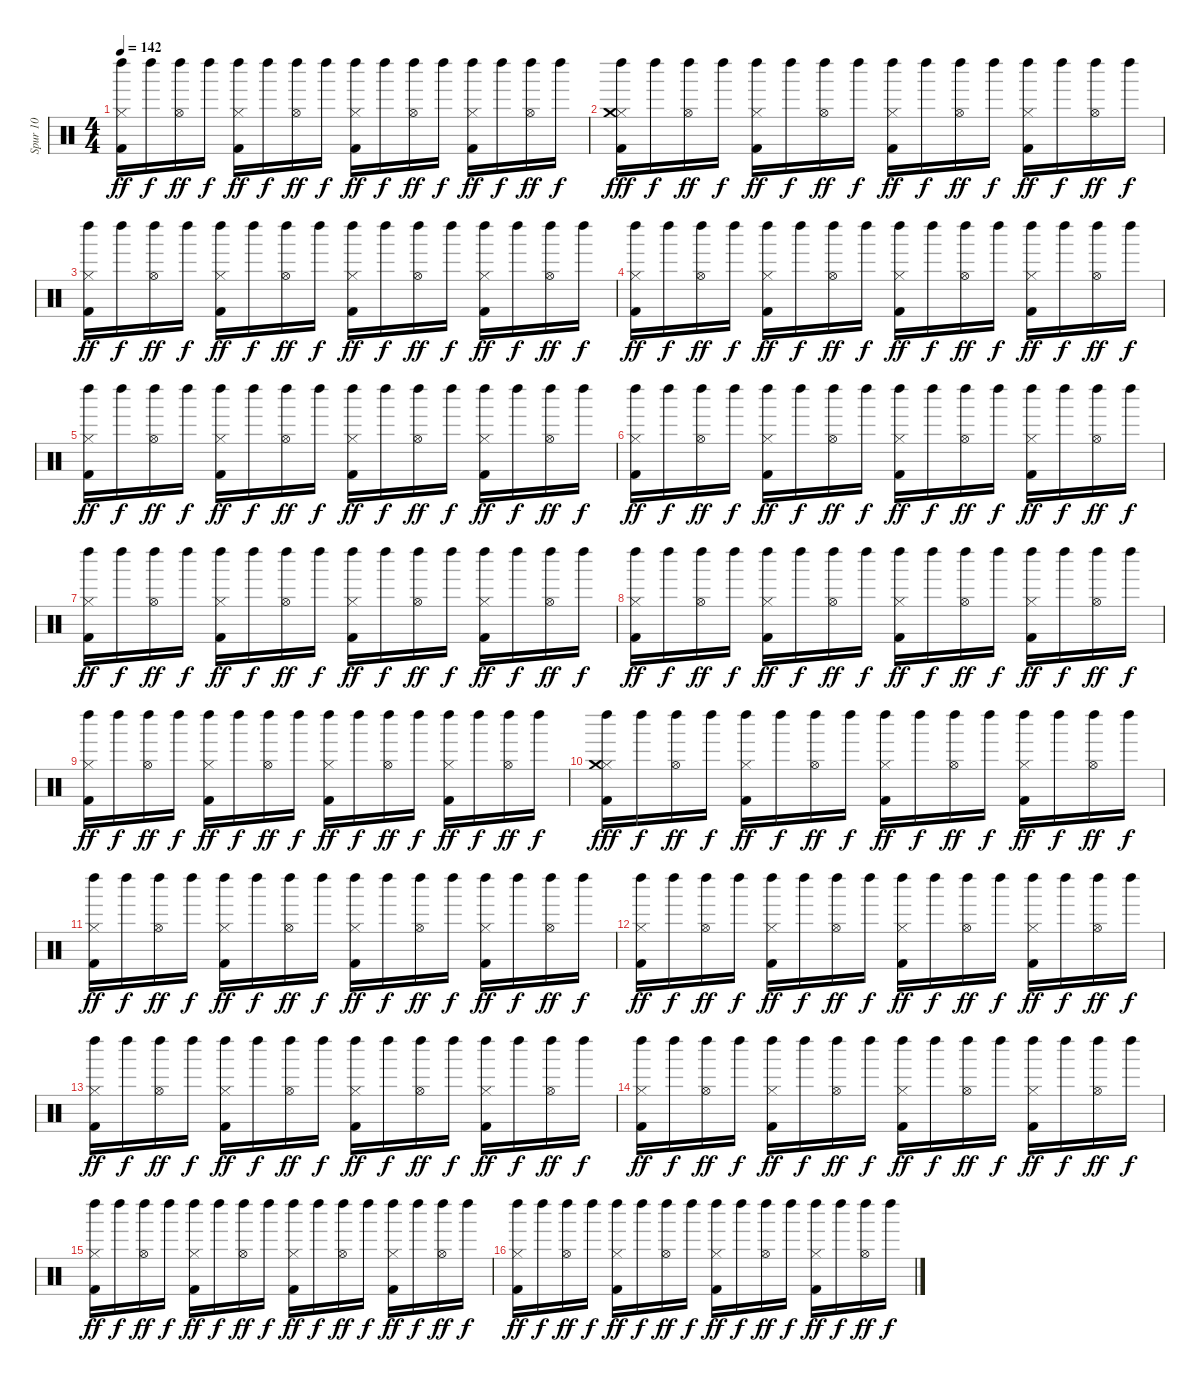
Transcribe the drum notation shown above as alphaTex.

\track ("Spur 10" "Spur 10") {instrument percussion}
\staff {score}
\articulation defaults
\ts (4 4)
\tempo 142
\clef neutral
\ks c
("Kick (hit) 2" "Hi-Hat (closed)" "Left Maraca (hit)").16{dy ff} "Left Maraca (hit)".16{dy f} ("Hi-Hat (open)" "Left Maraca (hit)").16{dy ff} "Left Maraca (hit)".16{dy f} ("Kick (hit) 2" "Hi-Hat (closed)" "Left Maraca (hit)").16{dy ff} "Left Maraca (hit)".16{dy f} ("Hi-Hat (open)" "Left Maraca (hit)").16{dy ff} "Left Maraca (hit)".16{dy f} ("Kick (hit) 2" "Hi-Hat (closed)" "Left Maraca (hit)").16{dy ff} "Left Maraca (hit)".16{dy f} ("Hi-Hat (open)" "Left Maraca (hit)").16{dy ff} "Left Maraca (hit)".16{dy f} ("Kick (hit) 2" "Hi-Hat (closed)" "Left Maraca (hit)").16{dy ff} "Left Maraca (hit)".16{dy f} ("Hi-Hat (open)" "Left Maraca (hit)").16{dy ff} "Left Maraca (hit)".16{dy f} |
("Kick (hit) 2" "Hi-Hat (closed)" "Crash medium (hit)" "Left Maraca (hit)").16{dy fff} "Left Maraca (hit)".16{dy f} ("Hi-Hat (open)" "Left Maraca (hit)").16{dy ff} "Left Maraca (hit)".16{dy f} ("Kick (hit) 2" "Hi-Hat (closed)" "Left Maraca (hit)").16{dy ff} "Left Maraca (hit)".16{dy f} ("Hi-Hat (open)" "Left Maraca (hit)").16{dy ff} "Left Maraca (hit)".16{dy f} ("Kick (hit) 2" "Hi-Hat (closed)" "Left Maraca (hit)").16{dy ff} "Left Maraca (hit)".16{dy f} ("Hi-Hat (open)" "Left Maraca (hit)").16{dy ff} "Left Maraca (hit)".16{dy f} ("Kick (hit) 2" "Hi-Hat (closed)" "Left Maraca (hit)").16{dy ff} "Left Maraca (hit)".16{dy f} ("Hi-Hat (open)" "Left Maraca (hit)").16{dy ff} "Left Maraca (hit)".16{dy f} |
("Kick (hit) 2" "Hi-Hat (closed)" "Left Maraca (hit)").16{dy ff} "Left Maraca (hit)".16{dy f} ("Hi-Hat (open)" "Left Maraca (hit)").16{dy ff} "Left Maraca (hit)".16{dy f} ("Kick (hit) 2" "Hi-Hat (closed)" "Left Maraca (hit)").16{dy ff} "Left Maraca (hit)".16{dy f} ("Hi-Hat (open)" "Left Maraca (hit)").16{dy ff} "Left Maraca (hit)".16{dy f} ("Kick (hit) 2" "Hi-Hat (closed)" "Left Maraca (hit)").16{dy ff} "Left Maraca (hit)".16{dy f} ("Hi-Hat (open)" "Left Maraca (hit)").16{dy ff} "Left Maraca (hit)".16{dy f} ("Kick (hit) 2" "Hi-Hat (closed)" "Left Maraca (hit)").16{dy ff} "Left Maraca (hit)".16{dy f} ("Hi-Hat (open)" "Left Maraca (hit)").16{dy ff} "Left Maraca (hit)".16{dy f} |
("Kick (hit) 2" "Hi-Hat (closed)" "Left Maraca (hit)").16{dy ff} "Left Maraca (hit)".16{dy f} ("Hi-Hat (open)" "Left Maraca (hit)").16{dy ff} "Left Maraca (hit)".16{dy f} ("Kick (hit) 2" "Hi-Hat (closed)" "Left Maraca (hit)").16{dy ff} "Left Maraca (hit)".16{dy f} ("Hi-Hat (open)" "Left Maraca (hit)").16{dy ff} "Left Maraca (hit)".16{dy f} ("Kick (hit) 2" "Hi-Hat (closed)" "Left Maraca (hit)").16{dy ff} "Left Maraca (hit)".16{dy f} ("Hi-Hat (open)" "Left Maraca (hit)").16{dy ff} "Left Maraca (hit)".16{dy f} ("Kick (hit) 2" "Hi-Hat (closed)" "Left Maraca (hit)").16{dy ff} "Left Maraca (hit)".16{dy f} ("Hi-Hat (open)" "Left Maraca (hit)").16{dy ff} "Left Maraca (hit)".16{dy f} |
("Kick (hit) 2" "Hi-Hat (closed)" "Left Maraca (hit)").16{dy ff} "Left Maraca (hit)".16{dy f} ("Hi-Hat (open)" "Left Maraca (hit)").16{dy ff} "Left Maraca (hit)".16{dy f} ("Kick (hit) 2" "Hi-Hat (closed)" "Left Maraca (hit)").16{dy ff} "Left Maraca (hit)".16{dy f} ("Hi-Hat (open)" "Left Maraca (hit)").16{dy ff} "Left Maraca (hit)".16{dy f} ("Kick (hit) 2" "Hi-Hat (closed)" "Left Maraca (hit)").16{dy ff} "Left Maraca (hit)".16{dy f} ("Hi-Hat (open)" "Left Maraca (hit)").16{dy ff} "Left Maraca (hit)".16{dy f} ("Kick (hit) 2" "Hi-Hat (closed)" "Left Maraca (hit)").16{dy ff} "Left Maraca (hit)".16{dy f} ("Hi-Hat (open)" "Left Maraca (hit)").16{dy ff} "Left Maraca (hit)".16{dy f} |
("Kick (hit) 2" "Hi-Hat (closed)" "Left Maraca (hit)").16{dy ff} "Left Maraca (hit)".16{dy f} ("Hi-Hat (open)" "Left Maraca (hit)").16{dy ff} "Left Maraca (hit)".16{dy f} ("Kick (hit) 2" "Hi-Hat (closed)" "Left Maraca (hit)").16{dy ff} "Left Maraca (hit)".16{dy f} ("Hi-Hat (open)" "Left Maraca (hit)").16{dy ff} "Left Maraca (hit)".16{dy f} ("Kick (hit) 2" "Hi-Hat (closed)" "Left Maraca (hit)").16{dy ff} "Left Maraca (hit)".16{dy f} ("Hi-Hat (open)" "Left Maraca (hit)").16{dy ff} "Left Maraca (hit)".16{dy f} ("Kick (hit) 2" "Hi-Hat (closed)" "Left Maraca (hit)").16{dy ff} "Left Maraca (hit)".16{dy f} ("Hi-Hat (open)" "Left Maraca (hit)").16{dy ff} "Left Maraca (hit)".16{dy f} |
("Kick (hit) 2" "Hi-Hat (closed)" "Left Maraca (hit)").16{dy ff} "Left Maraca (hit)".16{dy f} ("Hi-Hat (open)" "Left Maraca (hit)").16{dy ff} "Left Maraca (hit)".16{dy f} ("Kick (hit) 2" "Hi-Hat (closed)" "Left Maraca (hit)").16{dy ff} "Left Maraca (hit)".16{dy f} ("Hi-Hat (open)" "Left Maraca (hit)").16{dy ff} "Left Maraca (hit)".16{dy f} ("Kick (hit) 2" "Hi-Hat (closed)" "Left Maraca (hit)").16{dy ff} "Left Maraca (hit)".16{dy f} ("Hi-Hat (open)" "Left Maraca (hit)").16{dy ff} "Left Maraca (hit)".16{dy f} ("Kick (hit) 2" "Hi-Hat (closed)" "Left Maraca (hit)").16{dy ff} "Left Maraca (hit)".16{dy f} ("Hi-Hat (open)" "Left Maraca (hit)").16{dy ff} "Left Maraca (hit)".16{dy f} |
("Kick (hit) 2" "Hi-Hat (closed)" "Left Maraca (hit)").16{dy ff} "Left Maraca (hit)".16{dy f} ("Hi-Hat (open)" "Left Maraca (hit)").16{dy ff} "Left Maraca (hit)".16{dy f} ("Kick (hit) 2" "Hi-Hat (closed)" "Left Maraca (hit)").16{dy ff} "Left Maraca (hit)".16{dy f} ("Hi-Hat (open)" "Left Maraca (hit)").16{dy ff} "Left Maraca (hit)".16{dy f} ("Kick (hit) 2" "Hi-Hat (closed)" "Left Maraca (hit)").16{dy ff} "Left Maraca (hit)".16{dy f} ("Hi-Hat (open)" "Left Maraca (hit)").16{dy ff} "Left Maraca (hit)".16{dy f} ("Kick (hit) 2" "Hi-Hat (closed)" "Left Maraca (hit)").16{dy ff} "Left Maraca (hit)".16{dy f} ("Hi-Hat (open)" "Left Maraca (hit)").16{dy ff} "Left Maraca (hit)".16{dy f} |
("Kick (hit) 2" "Hi-Hat (closed)" "Left Maraca (hit)").16{dy ff} "Left Maraca (hit)".16{dy f} ("Hi-Hat (open)" "Left Maraca (hit)").16{dy ff} "Left Maraca (hit)".16{dy f} ("Kick (hit) 2" "Hi-Hat (closed)" "Left Maraca (hit)").16{dy ff} "Left Maraca (hit)".16{dy f} ("Hi-Hat (open)" "Left Maraca (hit)").16{dy ff} "Left Maraca (hit)".16{dy f} ("Kick (hit) 2" "Hi-Hat (closed)" "Left Maraca (hit)").16{dy ff} "Left Maraca (hit)".16{dy f} ("Hi-Hat (open)" "Left Maraca (hit)").16{dy ff} "Left Maraca (hit)".16{dy f} ("Kick (hit) 2" "Hi-Hat (closed)" "Left Maraca (hit)").16{dy ff} "Left Maraca (hit)".16{dy f} ("Hi-Hat (open)" "Left Maraca (hit)").16{dy ff} "Left Maraca (hit)".16{dy f} |
("Kick (hit) 2" "Hi-Hat (closed)" "Crash medium (hit)" "Left Maraca (hit)").16{dy fff} "Left Maraca (hit)".16{dy f} ("Hi-Hat (open)" "Left Maraca (hit)").16{dy ff} "Left Maraca (hit)".16{dy f} ("Kick (hit) 2" "Hi-Hat (closed)" "Left Maraca (hit)").16{dy ff} "Left Maraca (hit)".16{dy f} ("Hi-Hat (open)" "Left Maraca (hit)").16{dy ff} "Left Maraca (hit)".16{dy f} ("Kick (hit) 2" "Hi-Hat (closed)" "Left Maraca (hit)").16{dy ff} "Left Maraca (hit)".16{dy f} ("Hi-Hat (open)" "Left Maraca (hit)").16{dy ff} "Left Maraca (hit)".16{dy f} ("Kick (hit) 2" "Hi-Hat (closed)" "Left Maraca (hit)").16{dy ff} "Left Maraca (hit)".16{dy f} ("Hi-Hat (open)" "Left Maraca (hit)").16{dy ff} "Left Maraca (hit)".16{dy f} |
("Kick (hit) 2" "Hi-Hat (closed)" "Left Maraca (hit)").16{dy ff} "Left Maraca (hit)".16{dy f} ("Hi-Hat (open)" "Left Maraca (hit)").16{dy ff} "Left Maraca (hit)".16{dy f} ("Kick (hit) 2" "Hi-Hat (closed)" "Left Maraca (hit)").16{dy ff} "Left Maraca (hit)".16{dy f} ("Hi-Hat (open)" "Left Maraca (hit)").16{dy ff} "Left Maraca (hit)".16{dy f} ("Kick (hit) 2" "Hi-Hat (closed)" "Left Maraca (hit)").16{dy ff} "Left Maraca (hit)".16{dy f} ("Hi-Hat (open)" "Left Maraca (hit)").16{dy ff} "Left Maraca (hit)".16{dy f} ("Kick (hit) 2" "Hi-Hat (closed)" "Left Maraca (hit)").16{dy ff} "Left Maraca (hit)".16{dy f} ("Hi-Hat (open)" "Left Maraca (hit)").16{dy ff} "Left Maraca (hit)".16{dy f} |
("Kick (hit) 2" "Hi-Hat (closed)" "Left Maraca (hit)").16{dy ff} "Left Maraca (hit)".16{dy f} ("Hi-Hat (open)" "Left Maraca (hit)").16{dy ff} "Left Maraca (hit)".16{dy f} ("Kick (hit) 2" "Hi-Hat (closed)" "Left Maraca (hit)").16{dy ff} "Left Maraca (hit)".16{dy f} ("Hi-Hat (open)" "Left Maraca (hit)").16{dy ff} "Left Maraca (hit)".16{dy f} ("Kick (hit) 2" "Hi-Hat (closed)" "Left Maraca (hit)").16{dy ff} "Left Maraca (hit)".16{dy f} ("Hi-Hat (open)" "Left Maraca (hit)").16{dy ff} "Left Maraca (hit)".16{dy f} ("Kick (hit) 2" "Hi-Hat (closed)" "Left Maraca (hit)").16{dy ff} "Left Maraca (hit)".16{dy f} ("Hi-Hat (open)" "Left Maraca (hit)").16{dy ff} "Left Maraca (hit)".16{dy f} |
("Kick (hit) 2" "Hi-Hat (closed)" "Left Maraca (hit)").16{dy ff} "Left Maraca (hit)".16{dy f} ("Hi-Hat (open)" "Left Maraca (hit)").16{dy ff} "Left Maraca (hit)".16{dy f} ("Kick (hit) 2" "Hi-Hat (closed)" "Left Maraca (hit)").16{dy ff} "Left Maraca (hit)".16{dy f} ("Hi-Hat (open)" "Left Maraca (hit)").16{dy ff} "Left Maraca (hit)".16{dy f} ("Kick (hit) 2" "Hi-Hat (closed)" "Left Maraca (hit)").16{dy ff} "Left Maraca (hit)".16{dy f} ("Hi-Hat (open)" "Left Maraca (hit)").16{dy ff} "Left Maraca (hit)".16{dy f} ("Kick (hit) 2" "Hi-Hat (closed)" "Left Maraca (hit)").16{dy ff} "Left Maraca (hit)".16{dy f} ("Hi-Hat (open)" "Left Maraca (hit)").16{dy ff} "Left Maraca (hit)".16{dy f} |
("Kick (hit) 2" "Hi-Hat (closed)" "Left Maraca (hit)").16{dy ff} "Left Maraca (hit)".16{dy f} ("Hi-Hat (open)" "Left Maraca (hit)").16{dy ff} "Left Maraca (hit)".16{dy f} ("Kick (hit) 2" "Hi-Hat (closed)" "Left Maraca (hit)").16{dy ff} "Left Maraca (hit)".16{dy f} ("Hi-Hat (open)" "Left Maraca (hit)").16{dy ff} "Left Maraca (hit)".16{dy f} ("Kick (hit) 2" "Hi-Hat (closed)" "Left Maraca (hit)").16{dy ff} "Left Maraca (hit)".16{dy f} ("Hi-Hat (open)" "Left Maraca (hit)").16{dy ff} "Left Maraca (hit)".16{dy f} ("Kick (hit) 2" "Hi-Hat (closed)" "Left Maraca (hit)").16{dy ff} "Left Maraca (hit)".16{dy f} ("Hi-Hat (open)" "Left Maraca (hit)").16{dy ff} "Left Maraca (hit)".16{dy f} |
("Kick (hit) 2" "Hi-Hat (closed)" "Left Maraca (hit)").16{dy ff} "Left Maraca (hit)".16{dy f} ("Hi-Hat (open)" "Left Maraca (hit)").16{dy ff} "Left Maraca (hit)".16{dy f} ("Kick (hit) 2" "Hi-Hat (closed)" "Left Maraca (hit)").16{dy ff} "Left Maraca (hit)".16{dy f} ("Hi-Hat (open)" "Left Maraca (hit)").16{dy ff} "Left Maraca (hit)".16{dy f} ("Kick (hit) 2" "Hi-Hat (closed)" "Left Maraca (hit)").16{dy ff} "Left Maraca (hit)".16{dy f} ("Hi-Hat (open)" "Left Maraca (hit)").16{dy ff} "Left Maraca (hit)".16{dy f} ("Kick (hit) 2" "Hi-Hat (closed)" "Left Maraca (hit)").16{dy ff} "Left Maraca (hit)".16{dy f} ("Hi-Hat (open)" "Left Maraca (hit)").16{dy ff} "Left Maraca (hit)".16{dy f} |
("Kick (hit) 2" "Hi-Hat (closed)" "Left Maraca (hit)").16{dy ff} "Left Maraca (hit)".16{dy f} ("Hi-Hat (open)" "Left Maraca (hit)").16{dy ff} "Left Maraca (hit)".16{dy f} ("Kick (hit) 2" "Hi-Hat (closed)" "Left Maraca (hit)").16{dy ff} "Left Maraca (hit)".16{dy f} ("Hi-Hat (open)" "Left Maraca (hit)").16{dy ff} "Left Maraca (hit)".16{dy f} ("Kick (hit) 2" "Hi-Hat (closed)" "Left Maraca (hit)").16{dy ff} "Left Maraca (hit)".16{dy f} ("Hi-Hat (open)" "Left Maraca (hit)").16{dy ff} "Left Maraca (hit)".16{dy f} ("Kick (hit) 2" "Hi-Hat (closed)" "Left Maraca (hit)").16{dy ff} "Left Maraca (hit)".16{dy f} ("Hi-Hat (open)" "Left Maraca (hit)").16{dy ff} "Left Maraca (hit)".16{dy f}
